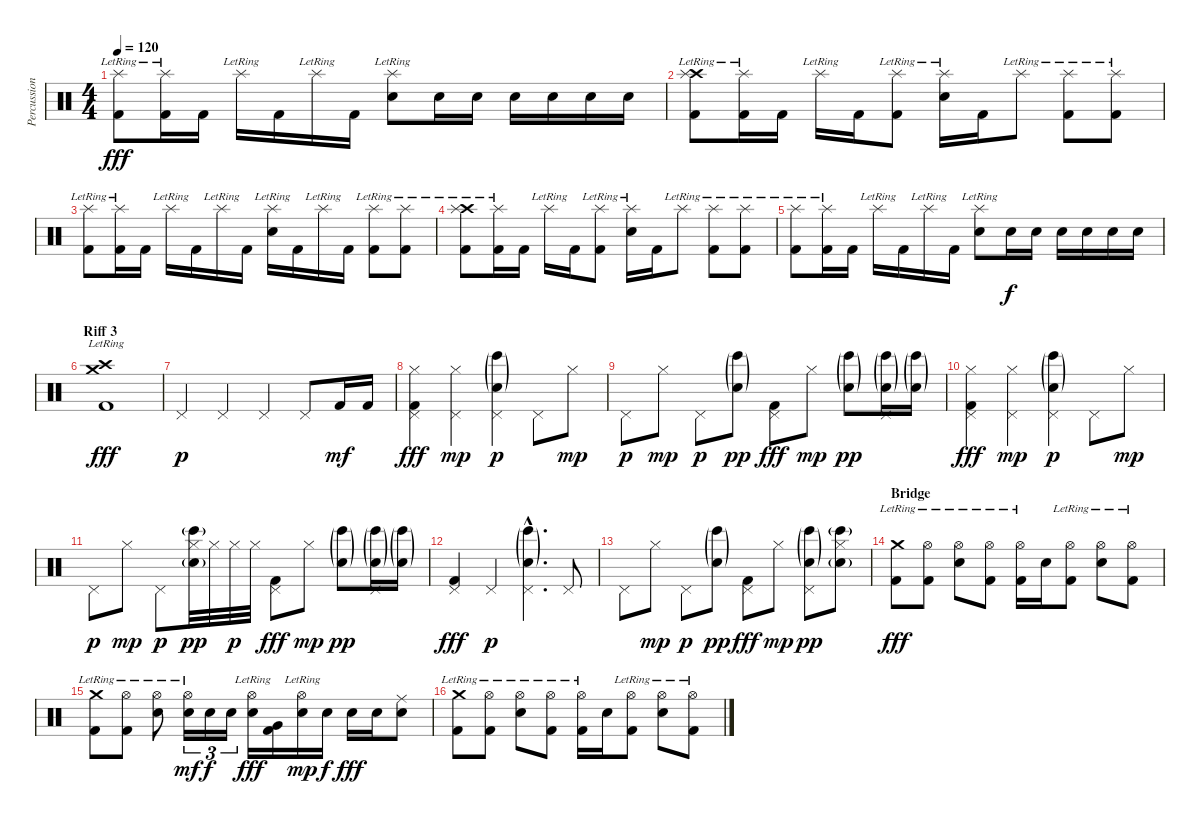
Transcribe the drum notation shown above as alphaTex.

\track ("Percussions" "Percussion") {instrument percussion}
\staff {score}
\articulation defaults
\ts (4 4)
\tempo 120
\clef neutral
\ks c
("Splash (hit)"{lr} "Kick (hit) 2").8{dy fff} ("Splash (hit)"{lr} "Kick (hit) 2").16 "Kick (hit) 2".16 "Splash (hit)"{lr}.16 "Kick (hit) 2".16 "Splash (hit)"{lr}.16 "Kick (hit) 2".16 ("Splash (hit)"{lr} "Electric Snare (hit)").8 "Electric Snare (hit)".16 "Electric Snare (hit)".16 "Electric Snare (hit)".16 "Electric Snare (hit)".16 "Electric Snare (hit)".16 "Electric Snare (hit)".16 |
("Crash high (hit)"{lr} "Splash (hit)"{lr} "Kick (hit) 2").8 ("Splash (hit)"{lr} "Kick (hit) 2").16 "Kick (hit) 2".16 "Splash (hit)"{lr}.16 "Kick (hit) 2".16 ("Splash (hit)"{lr} "Kick (hit) 2").8 ("Splash (hit)"{lr} "Electric Snare (hit)").16 "Kick (hit) 2".16 "Splash (hit)"{lr}.8 ("Splash (hit)"{lr} "Kick (hit) 2").8 ("Splash (hit)"{lr} "Kick (hit) 2").8 |
("Splash (hit)"{lr} "Kick (hit) 2").8 ("Splash (hit)"{lr} "Kick (hit) 2").16 "Kick (hit) 2".16 "Splash (hit)"{lr}.16 "Kick (hit) 2".16 "Splash (hit)"{lr}.16 "Kick (hit) 2".16 ("Splash (hit)"{lr} "Electric Snare (hit)").16 "Kick (hit) 2".16 "Splash (hit)"{lr}.16 "Kick (hit) 2".16 ("Splash (hit)"{lr} "Kick (hit) 2").8 ("Splash (hit)"{lr} "Kick (hit) 2").8 |
("Crash high (hit)"{lr} "Splash (hit)"{lr} "Kick (hit) 2").8 ("Splash (hit)"{lr} "Kick (hit) 2").16 "Kick (hit) 2".16 "Splash (hit)"{lr}.16 "Kick (hit) 2".16 ("Splash (hit)"{lr} "Kick (hit) 2").8 ("Splash (hit)"{lr} "Electric Snare (hit)").16 "Kick (hit) 2".16 "Splash (hit)"{lr}.8 ("Splash (hit)"{lr} "Kick (hit) 2").8 ("Splash (hit)"{lr} "Kick (hit) 2").8 |
("Splash (hit)"{lr} "Kick (hit) 2").8 ("Splash (hit)"{lr} "Kick (hit) 2").16 "Kick (hit) 2".16 "Splash (hit)"{lr}.16 "Kick (hit) 2".16 "Splash (hit)"{lr}.16 "Kick (hit) 2".16 ("Splash (hit)"{lr} "Electric Snare (hit)").8 "Electric Snare (hit)".16{dy f} "Electric Snare (hit)".16 "Electric Snare (hit)".16 "Electric Snare (hit)".16 "Electric Snare (hit)".16 "Electric Snare (hit)".16 |
\section ("" "Riff 3")
("Crash high (hit)"{lr} "Crash medium (hit)"{lr} "Kick (hit) 2").1{dy fff} |
"Pedal Hi-Hat (hit)".4{dy p} "Pedal Hi-Hat (hit)".4 "Pedal Hi-Hat (hit)".4 "Pedal Hi-Hat (hit)".8 "Kick (hit) 2".16{dy mf} "Kick (hit) 2".16 |
("Pedal Hi-Hat (hit)" "Hi-Hat (closed)" "Kick (hit) 2").4{dy fff} ("Pedal Hi-Hat (hit)" "Hi-Hat (closed)").4{dy mp} ("Pedal Hi-Hat (hit)" "Bongo High (hit)"{g} "Electric Snare (hit)"{g}).4{dy p} "Pedal Hi-Hat (hit)".8 "Hi-Hat (closed)".8{dy mp} |
"Pedal Hi-Hat (hit)".8{dy p} "Hi-Hat (closed)".8{dy mp} "Pedal Hi-Hat (hit)".8{dy p} ("Bongo High (hit)"{g} "Electric Snare (hit)"{g}).8{dy pp} ("Pedal Hi-Hat (hit)" "Kick (hit) 2").8{dy fff} "Hi-Hat (closed)".8{dy mp} ("Bongo High (hit)"{g} "Electric Snare (hit)"{g}).8{dy pp} ("Pedal Hi-Hat (hit)" "Bongo High (hit)"{g} "Electric Snare (hit)"{g}).16 ("Bongo High (hit)"{g} "Electric Snare (hit)"{g}).16 |
("Pedal Hi-Hat (hit)" "Hi-Hat (closed)" "Kick (hit) 2").4{dy fff} ("Pedal Hi-Hat (hit)" "Hi-Hat (closed)").4{dy mp} ("Pedal Hi-Hat (hit)" "Bongo High (hit)"{g} "Electric Snare (hit)"{g}).4{dy p} "Pedal Hi-Hat (hit)".8 "Hi-Hat (closed)".8{dy mp} |
"Pedal Hi-Hat (hit)".8{dy p} "Hi-Hat (closed)".8{dy mp} "Pedal Hi-Hat (hit)".8{dy p} ("Hi-Hat (closed)" "Bongo High (hit)"{g} "Electric Snare (hit)"{g}).32{dy pp} "Hi-Hat (closed)".32 "Hi-Hat (closed)".32{dy p} "Hi-Hat (closed)".32 ("Pedal Hi-Hat (hit)" "Kick (hit) 2").8{dy fff} "Hi-Hat (closed)".8{dy mp} ("Bongo High (hit)"{g} "Electric Snare (hit)"{g}).8{dy pp} ("Pedal Hi-Hat (hit)" "Bongo High (hit)"{g} "Electric Snare (hit)"{g}).16 ("Bongo High (hit)"{g} "Electric Snare (hit)"{g}).16 |
("Pedal Hi-Hat (hit)" "Kick (hit) 2").4{dy fff} "Pedal Hi-Hat (hit)".4{dy p} ("Pedal Hi-Hat (hit)"{hac} "Bongo High (hit)"{g hac} "Electric Snare (hit)"{g hac}).4{d} "Pedal Hi-Hat (hit)".8 |
"Pedal Hi-Hat (hit)".8 "Hi-Hat (closed)".8{dy mp} "Pedal Hi-Hat (hit)".8{dy p} ("Bongo High (hit)"{g} "Electric Snare (hit)"{g}).8{dy pp} ("Pedal Hi-Hat (hit)" "Kick (hit) 2").8{dy fff} "Hi-Hat (closed)".8{dy mp} ("Pedal Hi-Hat (hit)" "Bongo High (hit)"{g} "Electric Snare (hit)"{g}).8{dy pp} ("Hi-Hat (closed)" "Bongo High (hit)"{g} "Electric Snare (hit)"{g}).8 |
\section ("" "Bridge")
("Crash medium (hit)"{lr} "Kick (hit) 2").8{dy fff} ("Hi-Hat (open)"{lr} "Kick (hit) 2").8 ("Hi-Hat (open)"{lr} "Electric Snare (hit)").8 ("Hi-Hat (open)"{lr} "Kick (hit) 2").8 ("Hi-Hat (open)"{lr} "Kick (hit) 2").16 "Electric Snare (hit)".16 ("Hi-Hat (open)"{lr} "Kick (hit) 2").8 ("Hi-Hat (open)"{lr} "Electric Snare (hit)").8 ("Hi-Hat (open)"{lr} "Kick (hit) 2").8 |
("Crash medium (hit)"{lr} "Kick (hit) 2").8 ("Hi-Hat (open)"{lr} "Kick (hit) 2").8 ("Hi-Hat (open)"{lr} "Electric Snare (hit)").8 ("Hi-Hat (open)"{lr} "Electric Snare (hit)").16{tu (3 2) dy mf} "Electric Snare (hit)".16{tu (3 2) dy f} "Electric Snare (hit)".16{tu (3 2)} ("Hi-Hat (open)"{lr} "Electric Snare (hit)").16{dy fff} ("Very Low Tom (hit)" "Kick (hit) 2").16 ("Hi-Hat (open)"{lr} "Electric Snare (hit)").16{dy mp} "Electric Snare (hit)".16{dy f} "Electric Snare (hit)".16{dy fff} "Electric Snare (hit)".16 ("Ride (middle)" "Electric Snare (hit)").8 |
("Crash medium (hit)"{lr} "Kick (hit) 2").8 ("Hi-Hat (open)"{lr} "Kick (hit) 2").8 ("Hi-Hat (open)"{lr} "Electric Snare (hit)").8 ("Hi-Hat (open)"{lr} "Kick (hit) 2").8 ("Hi-Hat (open)"{lr} "Kick (hit) 2").16 "Electric Snare (hit)".16 ("Hi-Hat (open)"{lr} "Kick (hit) 2").8 ("Hi-Hat (open)"{lr} "Electric Snare (hit)").8 ("Hi-Hat (open)"{lr} "Kick (hit) 2").8
